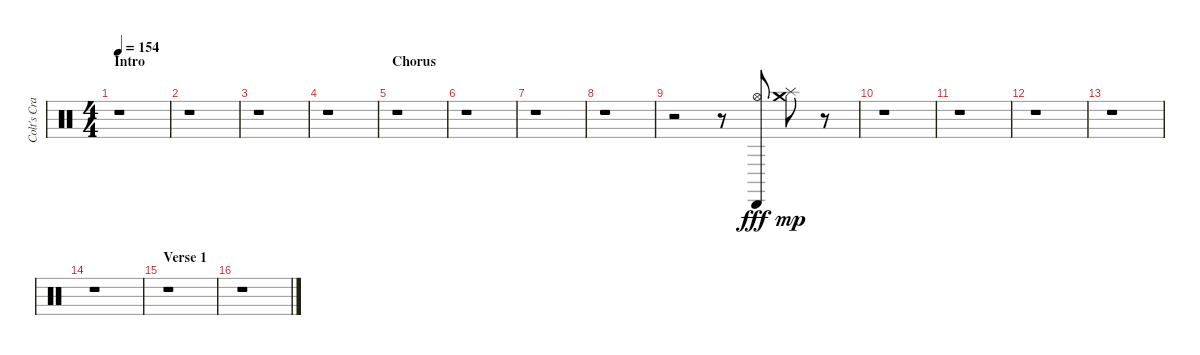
\track ("Colt's Cracking Whip!" "Colt's Cra") {instrument percussion}
\staff {score}
\articulation defaults
\ts (4 4)
\section ("" "Intro")
\tempo 154
\clef neutral
\ks c
r.1{dy fff} |
r.1 |
r.1 |
r.1 |
\section ("" "Chorus")
r.1 |
r.1 |
r.1 |
r.1 |
r.2 r.8 ("Hi-Hat (open)" "Cabasa (hit)").8 ("Crash medium (hit)" "Splash (hit)").8{dy mp} r.8 |
r.1 |
r.1 |
r.1 |
r.1 |
r.1 |
\section ("" "Verse 1")
r.1 |
r.1
